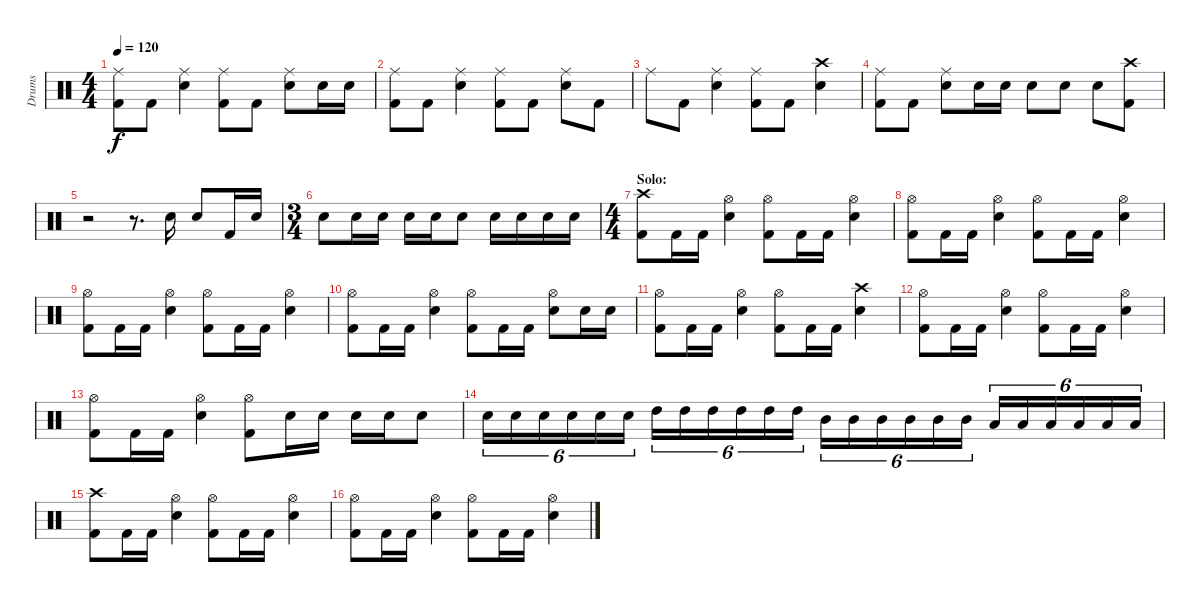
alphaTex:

\track ("Drums" "Drums") {instrument percussion}
\staff {score}
\articulation defaults
\ts (4 4)
\tempo 120
\clef neutral
\ks c
("Ride (middle)" "Kick (hit) 2").8{dy f} "Kick (hit) 2".8 ("Ride (middle)" "Electric Snare (hit)").4 ("Ride (middle)" "Kick (hit) 2").8 "Kick (hit) 2".8 ("Ride (middle)" "Electric Snare (hit)").8 "Electric Snare (hit)".16 "Electric Snare (hit)".16 |
("Ride (middle)" "Kick (hit) 2").8 "Kick (hit) 2".8 ("Ride (middle)" "Electric Snare (hit)").4 ("Ride (middle)" "Kick (hit) 2").8 "Kick (hit) 2".8 ("Ride (middle)" "Electric Snare (hit)").8 "Kick (hit) 2".8 |
"Ride (middle)".8 "Kick (hit) 2".8 ("Ride (middle)" "Electric Snare (hit)").4 ("Ride (middle)" "Kick (hit) 2").8 "Kick (hit) 2".8 ("Crash high (hit)" "Electric Snare (hit)").4 |
("Ride (middle)" "Kick (hit) 2").8 "Kick (hit) 2".8 ("Ride (middle)" "Electric Snare (hit)").8 "Electric Snare (hit)".16 "Electric Snare (hit)".16 "Electric Snare (hit)".8 "Electric Snare (hit)".8 "Electric Snare (hit)".8 ("Crash high (hit)" "Kick (hit) 2").8 |
r.2 r.8{d} "Electric Snare (hit)".16 "Electric Snare (hit)".8 "Kick (hit) 2".16 "Electric Snare (hit)".16 |
\ts (3 4)
"Electric Snare (hit)".8 "Electric Snare (hit)".16 "Electric Snare (hit)".16 "Electric Snare (hit)".16 "Electric Snare (hit)".16 "Electric Snare (hit)".8 "Electric Snare (hit)".16 "Electric Snare (hit)".16 "Electric Snare (hit)".16 "Electric Snare (hit)".16 |
\ts (4 4)
\section ("" "Solo:")
("Crash high (hit)" "Kick (hit) 2").8 "Kick (hit) 2".16 "Kick (hit) 2".16 ("Hi-Hat (open)" "Electric Snare (hit)").4 ("Hi-Hat (open)" "Kick (hit) 2").8 "Kick (hit) 2".16 "Kick (hit) 2".16 ("Hi-Hat (open)" "Electric Snare (hit)").4 |
("Hi-Hat (open)" "Kick (hit) 2").8 "Kick (hit) 2".16 "Kick (hit) 2".16 ("Hi-Hat (open)" "Electric Snare (hit)").4 ("Hi-Hat (open)" "Kick (hit) 2").8 "Kick (hit) 2".16 "Kick (hit) 2".16 ("Hi-Hat (open)" "Electric Snare (hit)").4 |
("Hi-Hat (open)" "Kick (hit) 2").8 "Kick (hit) 2".16 "Kick (hit) 2".16 ("Hi-Hat (open)" "Electric Snare (hit)").4 ("Hi-Hat (open)" "Kick (hit) 2").8 "Kick (hit) 2".16 "Kick (hit) 2".16 ("Hi-Hat (open)" "Electric Snare (hit)").4 |
("Hi-Hat (open)" "Kick (hit) 2").8 "Kick (hit) 2".16 "Kick (hit) 2".16 ("Hi-Hat (open)" "Electric Snare (hit)").4 ("Hi-Hat (open)" "Kick (hit) 2").8 "Kick (hit) 2".16 "Kick (hit) 2".16 ("Hi-Hat (open)" "Electric Snare (hit)").8 "Electric Snare (hit)".16 "Electric Snare (hit)".16 |
("Hi-Hat (open)" "Kick (hit) 2").8 "Kick (hit) 2".16 "Kick (hit) 2".16 ("Hi-Hat (open)" "Electric Snare (hit)").4 ("Hi-Hat (open)" "Kick (hit) 2").8 "Kick (hit) 2".16 "Kick (hit) 2".16 ("Crash high (hit)" "Electric Snare (hit)").4 |
("Hi-Hat (open)" "Kick (hit) 2").8 "Kick (hit) 2".16 "Kick (hit) 2".16 ("Hi-Hat (open)" "Electric Snare (hit)").4 ("Hi-Hat (open)" "Kick (hit) 2").8 "Kick (hit) 2".16 "Kick (hit) 2".16 ("Hi-Hat (open)" "Electric Snare (hit)").4 |
("Hi-Hat (open)" "Kick (hit) 2").8 "Kick (hit) 2".16 "Kick (hit) 2".16 ("Hi-Hat (open)" "Electric Snare (hit)").4 ("Hi-Hat (open)" "Kick (hit) 2").8 "Electric Snare (hit)".16 "Electric Snare (hit)".16 "Electric Snare (hit)".16 "Electric Snare (hit)".16 "Electric Snare (hit)".8 |
"Electric Snare (hit)".16{tu (6 4)} "Electric Snare (hit)".16{tu (6 4)} "Electric Snare (hit)".16{tu (6 4)} "Electric Snare (hit)".16{tu (6 4)} "Electric Snare (hit)".16{tu (6 4)} "Electric Snare (hit)".16{tu (6 4)} "High Tom (hit)".16{tu (6 4)} "High Tom (hit)".16{tu (6 4)} "High Tom (hit)".16{tu (6 4)} "High Tom (hit)".16{tu (6 4)} "High Tom (hit)".16{tu (6 4)} "High Tom (hit)".16{tu (6 4)} "Mid Tom (hit)".16{tu (6 4)} "Mid Tom (hit)".16{tu (6 4)} "Mid Tom (hit)".16{tu (6 4)} "Mid Tom (hit)".16{tu (6 4)} "Mid Tom (hit)".16{tu (6 4)} "Mid Tom (hit)".16{tu (6 4)} "Low Tom (hit)".16{tu (6 4)} "Low Tom (hit)".16{tu (6 4)} "Low Tom (hit)".16{tu (6 4)} "Low Tom (hit)".16{tu (6 4)} "Low Tom (hit)".16{tu (6 4)} "Low Tom (hit)".16{tu (6 4)} |
("Crash high (hit)" "Kick (hit) 2").8 "Kick (hit) 2".16 "Kick (hit) 2".16 ("Hi-Hat (open)" "Electric Snare (hit)").4 ("Hi-Hat (open)" "Kick (hit) 2").8 "Kick (hit) 2".16 "Kick (hit) 2".16 ("Hi-Hat (open)" "Electric Snare (hit)").4 |
("Hi-Hat (open)" "Kick (hit) 2").8 "Kick (hit) 2".16 "Kick (hit) 2".16 ("Hi-Hat (open)" "Electric Snare (hit)").4 ("Hi-Hat (open)" "Kick (hit) 2").8 "Kick (hit) 2".16 "Kick (hit) 2".16 ("Hi-Hat (open)" "Electric Snare (hit)").4
